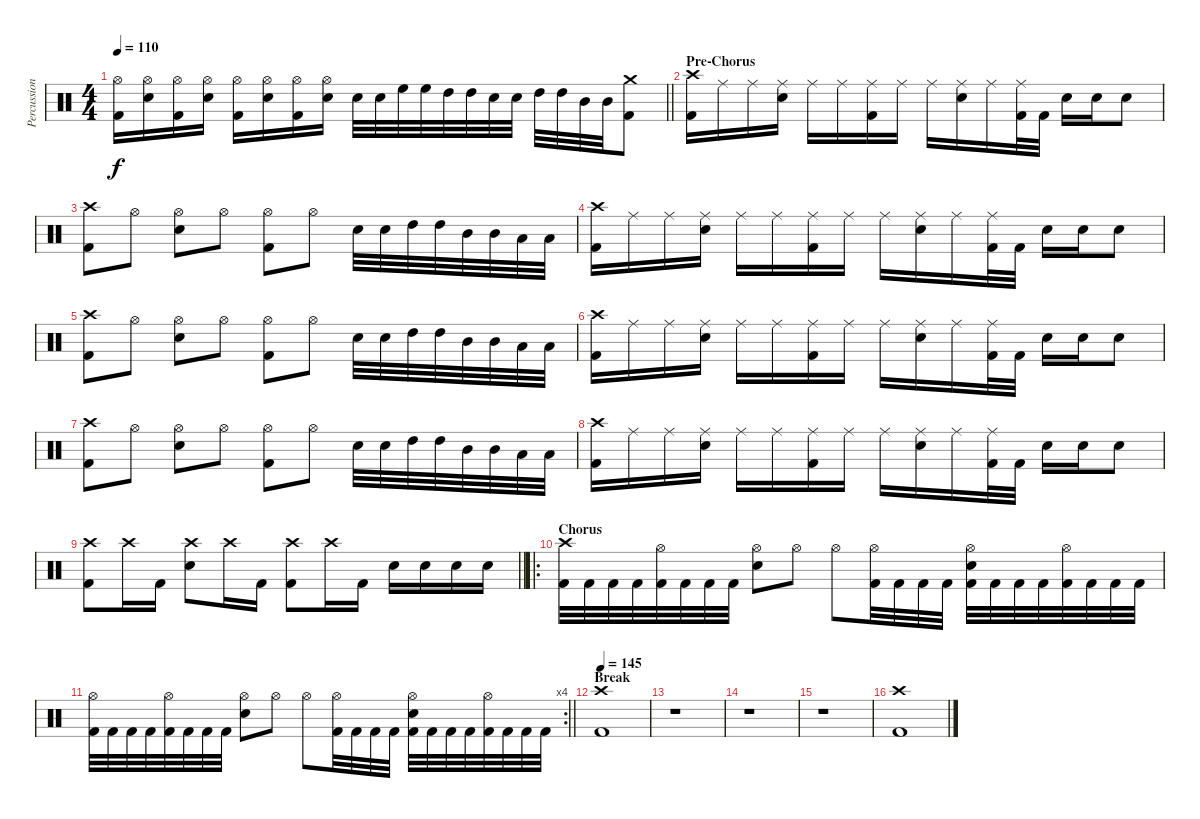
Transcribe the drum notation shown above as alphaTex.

\track ("Percussion" "Percussion") {instrument percussion}
\staff {score}
\articulation defaults
\ts (4 4)
\tempo 110
\clef neutral
\barLineRight lightlight
\ks c
("Hi-Hat (open)" "Kick (hit) 2").16{dy f} ("Hi-Hat (open)" "Snare (hit) 2").16 ("Hi-Hat (open)" "Kick (hit) 2").16 ("Hi-Hat (open)" "Snare (hit) 2").16 ("Hi-Hat (open)" "Kick (hit) 2").16 ("Hi-Hat (open)" "Snare (hit) 2").16 ("Hi-Hat (open)" "Kick (hit) 2").16 ("Hi-Hat (open)" "Snare (hit) 2").16 "Snare (hit) 2".32 "Snare (hit) 2".32 "High Floor Tom (hit)".32 "High Floor Tom (hit)".32 "High Tom (hit)".32 "High Tom (hit)".32 "Snare (hit) 2".32 "Snare (hit) 2".32 "High Tom (hit)".32 "High Tom (hit)".32 "Mid Tom (hit)".32 "Mid Tom (hit)".32 ("Crash medium (hit)" "Kick (hit) 2").8 |
\section ("" "Pre-Chorus")
("Crash high (hit)" "Kick (hit) 2").16 "Ride (middle)".16 "Ride (middle)".16 ("Ride (middle)" "Snare (hit) 2").16 "Ride (middle)".16 "Ride (middle)".16 ("Ride (middle)" "Kick (hit) 2").16 "Ride (middle)".16 "Ride (middle)".16 ("Ride (middle)" "Snare (hit) 2").16 "Ride (middle)".16 ("Ride (middle)" "Kick (hit) 2").32 "Kick (hit) 2".32 "Snare (hit) 2".16 "Snare (hit) 2".16 "Snare (hit) 2".8 |
("Crash high (hit)" "Kick (hit) 2").8 "Hi-Hat (open)".8 ("Hi-Hat (open)" "Snare (hit) 2").8 "Hi-Hat (open)".8 ("Hi-Hat (open)" "Kick (hit) 2").8 "Hi-Hat (open)".8 "Snare (hit) 2".32 "Snare (hit) 2".32 "High Tom (hit)".32 "High Tom (hit)".32 "Mid Tom (hit)".32 "Mid Tom (hit)".32 "Low Tom (hit)".32 "Low Tom (hit)".32 |
("Crash high (hit)" "Kick (hit) 2").16 "Ride (middle)".16 "Ride (middle)".16 ("Ride (middle)" "Snare (hit) 2").16 "Ride (middle)".16 "Ride (middle)".16 ("Ride (middle)" "Kick (hit) 2").16 "Ride (middle)".16 "Ride (middle)".16 ("Ride (middle)" "Snare (hit) 2").16 "Ride (middle)".16 ("Ride (middle)" "Kick (hit) 2").32 "Kick (hit) 2".32 "Snare (hit) 2".16 "Snare (hit) 2".16 "Snare (hit) 2".8 |
("Crash high (hit)" "Kick (hit) 2").8 "Hi-Hat (open)".8 ("Hi-Hat (open)" "Snare (hit) 2").8 "Hi-Hat (open)".8 ("Hi-Hat (open)" "Kick (hit) 2").8 "Hi-Hat (open)".8 "Snare (hit) 2".32 "Snare (hit) 2".32 "High Tom (hit)".32 "High Tom (hit)".32 "Mid Tom (hit)".32 "Mid Tom (hit)".32 "Low Tom (hit)".32 "Low Tom (hit)".32 |
("Crash high (hit)" "Kick (hit) 2").16 "Ride (middle)".16 "Ride (middle)".16 ("Ride (middle)" "Snare (hit) 2").16 "Ride (middle)".16 "Ride (middle)".16 ("Ride (middle)" "Kick (hit) 2").16 "Ride (middle)".16 "Ride (middle)".16 ("Ride (middle)" "Snare (hit) 2").16 "Ride (middle)".16 ("Ride (middle)" "Kick (hit) 2").32 "Kick (hit) 2".32 "Snare (hit) 2".16 "Snare (hit) 2".16 "Snare (hit) 2".8 |
("Crash high (hit)" "Kick (hit) 2").8 "Hi-Hat (open)".8 ("Hi-Hat (open)" "Snare (hit) 2").8 "Hi-Hat (open)".8 ("Hi-Hat (open)" "Kick (hit) 2").8 "Hi-Hat (open)".8 "Snare (hit) 2".32 "Snare (hit) 2".32 "High Tom (hit)".32 "High Tom (hit)".32 "Mid Tom (hit)".32 "Mid Tom (hit)".32 "Low Tom (hit)".32 "Low Tom (hit)".32 |
("Crash high (hit)" "Kick (hit) 2").16 "Ride (middle)".16 "Ride (middle)".16 ("Ride (middle)" "Snare (hit) 2").16 "Ride (middle)".16 "Ride (middle)".16 ("Ride (middle)" "Kick (hit) 2").16 "Ride (middle)".16 "Ride (middle)".16 ("Ride (middle)" "Snare (hit) 2").16 "Ride (middle)".16 ("Ride (middle)" "Kick (hit) 2").32 "Kick (hit) 2".32 "Snare (hit) 2".16 "Snare (hit) 2".16 "Snare (hit) 2".8 |
\barLineRight lightlight
("Crash high (hit)" "Kick (hit) 2").8 "Crash high (hit)".16 "Kick (hit) 2".16 ("Crash high (hit)" "Snare (hit) 2").8 "Crash high (hit)".16 "Kick (hit) 2".16 ("Crash high (hit)" "Kick (hit) 2").8 "Crash high (hit)".16 "Kick (hit) 2".16 "Snare (hit) 2".16 "Snare (hit) 2".16 "Snare (hit) 2".16 "Snare (hit) 2".16 |
\ro
\section ("" "Chorus")
("Crash high (hit)" "Kick (hit) 2").32 "Kick (hit) 2".32 "Kick (hit) 2".32 "Kick (hit) 2".32 ("Hi-Hat (open)" "Kick (hit) 2").32 "Kick (hit) 2".32 "Kick (hit) 2".32 "Kick (hit) 2".32 ("Hi-Hat (open)" "Snare (hit) 2").8 "Hi-Hat (open)".8 "Hi-Hat (open)".8 ("Hi-Hat (open)" "Kick (hit) 2").32 "Kick (hit) 2".32 "Kick (hit) 2".32 "Kick (hit) 2".32 ("Hi-Hat (open)" "Snare (hit) 2" "Kick (hit) 2").32 "Kick (hit) 2".32 "Kick (hit) 2".32 "Kick (hit) 2".32 ("Hi-Hat (open)" "Kick (hit) 2").32 "Kick (hit) 2".32 "Kick (hit) 2".32 "Kick (hit) 2".32 |
\rc 4
\barLineRight lightlight
("Hi-Hat (open)" "Kick (hit) 2").32 "Kick (hit) 2".32 "Kick (hit) 2".32 "Kick (hit) 2".32 ("Hi-Hat (open)" "Kick (hit) 2").32 "Kick (hit) 2".32 "Kick (hit) 2".32 "Kick (hit) 2".32 ("Hi-Hat (open)" "Snare (hit) 2").8 "Hi-Hat (open)".8 "Hi-Hat (open)".8 ("Hi-Hat (open)" "Kick (hit) 2").32 "Kick (hit) 2".32 "Kick (hit) 2".32 "Kick (hit) 2".32 ("Hi-Hat (open)" "Snare (hit) 2" "Kick (hit) 2").32 "Kick (hit) 2".32 "Kick (hit) 2".32 "Kick (hit) 2".32 ("Hi-Hat (open)" "Kick (hit) 2").32 "Kick (hit) 2".32 "Kick (hit) 2".32 "Kick (hit) 2".32 |
\section ("" "Break")
\tempo 145
("Crash high (hit)" "Kick (hit) 2").1 |
r.1 |
r.1 |
r.1 |
("Crash high (hit)" "Kick (hit) 2").1
